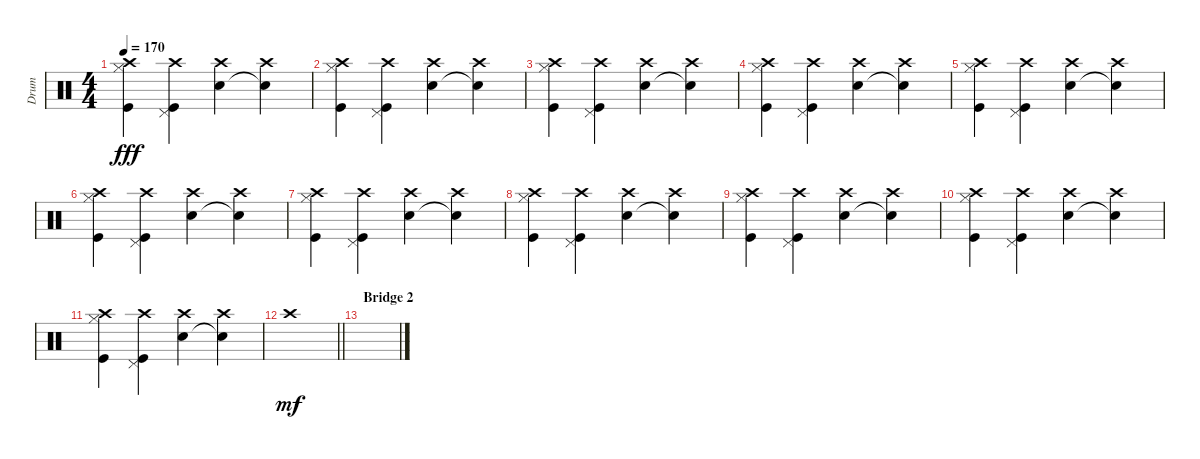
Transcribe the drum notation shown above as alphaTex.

\track ("Drum" "Drum") {instrument percussion}
\staff {score}
\articulation defaults
\ts (4 4)
\tempo 170
\clef neutral
\ks c
("Crash high (hit)" "Hi-Hat (closed)" "Kick (hit)").4{dy fff} ("Crash high (hit)" "Pedal Hi-Hat (hit)" "Kick (hit)").4 ("Crash high (hit)" "Snare (hit) 2").4 ("Crash high (hit)" "Snare (hit)"{t}).4 |
("Crash high (hit)" "Hi-Hat (closed)" "Kick (hit)").4 ("Crash high (hit)" "Pedal Hi-Hat (hit)" "Kick (hit)").4 ("Crash high (hit)" "Snare (hit) 2").4 ("Crash high (hit)" "Snare (hit)"{t}).4 |
("Crash high (hit)" "Hi-Hat (closed)" "Kick (hit)").4 ("Crash high (hit)" "Pedal Hi-Hat (hit)" "Kick (hit)").4 ("Crash high (hit)" "Snare (hit) 2").4 ("Crash high (hit)" "Snare (hit)"{t}).4 |
("Crash high (hit)" "Hi-Hat (closed)" "Kick (hit)").4 ("Crash high (hit)" "Pedal Hi-Hat (hit)" "Kick (hit)").4 ("Crash high (hit)" "Snare (hit) 2").4 ("Crash high (hit)" "Snare (hit)"{t}).4 |
("Crash high (hit)" "Hi-Hat (closed)" "Kick (hit)").4 ("Crash high (hit)" "Pedal Hi-Hat (hit)" "Kick (hit)").4 ("Crash high (hit)" "Snare (hit) 2").4 ("Crash high (hit)" "Snare (hit)"{t}).4 |
("Crash high (hit)" "Hi-Hat (closed)" "Kick (hit)").4 ("Crash high (hit)" "Pedal Hi-Hat (hit)" "Kick (hit)").4 ("Crash high (hit)" "Snare (hit) 2").4 ("Crash high (hit)" "Snare (hit)"{t}).4 |
("Crash high (hit)" "Hi-Hat (closed)" "Kick (hit)").4 ("Crash high (hit)" "Pedal Hi-Hat (hit)" "Kick (hit)").4 ("Crash high (hit)" "Snare (hit) 2").4 ("Crash high (hit)" "Snare (hit)"{t}).4 |
("Crash high (hit)" "Hi-Hat (closed)" "Kick (hit)").4 ("Crash high (hit)" "Pedal Hi-Hat (hit)" "Kick (hit)").4 ("Crash high (hit)" "Snare (hit) 2").4 ("Crash high (hit)" "Snare (hit)"{t}).4 |
("Crash high (hit)" "Hi-Hat (closed)" "Kick (hit)").4 ("Crash high (hit)" "Pedal Hi-Hat (hit)" "Kick (hit)").4 ("Crash high (hit)" "Snare (hit) 2").4 ("Crash high (hit)" "Snare (hit)"{t}).4 |
("Crash high (hit)" "Hi-Hat (closed)" "Kick (hit)").4 ("Crash high (hit)" "Pedal Hi-Hat (hit)" "Kick (hit)").4 ("Crash high (hit)" "Snare (hit) 2").4 ("Crash high (hit)" "Snare (hit)"{t}).4 |
("Crash high (hit)" "Hi-Hat (closed)" "Kick (hit)").4 ("Crash high (hit)" "Pedal Hi-Hat (hit)" "Kick (hit)").4 ("Crash high (hit)" "Snare (hit) 2").4 ("Crash high (hit)" "Snare (hit)"{t}).4 |
\barLineRight lightlight "Crash high (hit)".1{dy mf}
|
\section ("" "Bridge 2")
